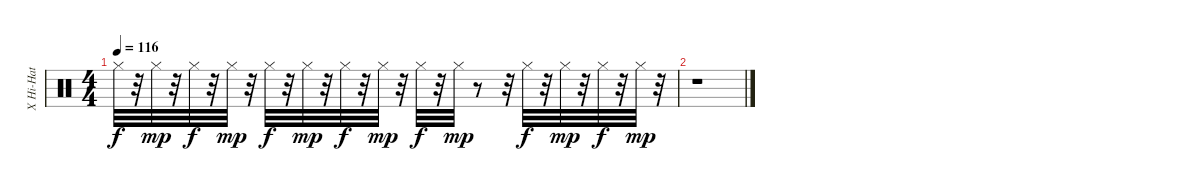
\track ("X Hi-Hat            " "X Hi-Hat  ") {instrument percussion}
\staff {score}
\articulation defaults
\ts (4 4)
\tempo 116
\clef neutral
\ks c "Hi-Hat (closed)".32{dy f}
r.32 "Hi-Hat (closed)".32{dy mp} r.32 "Hi-Hat (closed)".32{dy f} r.32 "Hi-Hat (closed)".32{dy mp} r.32 "Hi-Hat (closed)".32{dy f} r.32 "Hi-Hat (closed)".32{dy mp} r.32 "Hi-Hat (closed)".32{dy f} r.32 "Hi-Hat (closed)".32{dy mp} r.32 "Hi-Hat (closed)".32{dy f} r.32 "Hi-Hat (closed)".32{dy mp} r.8 r.32 "Hi-Hat (closed)".32{dy f} r.32 "Hi-Hat (closed)".32{dy mp} r.32 "Hi-Hat (closed)".32{dy f} r.32 "Hi-Hat (closed)".32{dy mp} r.32 |
r.1
